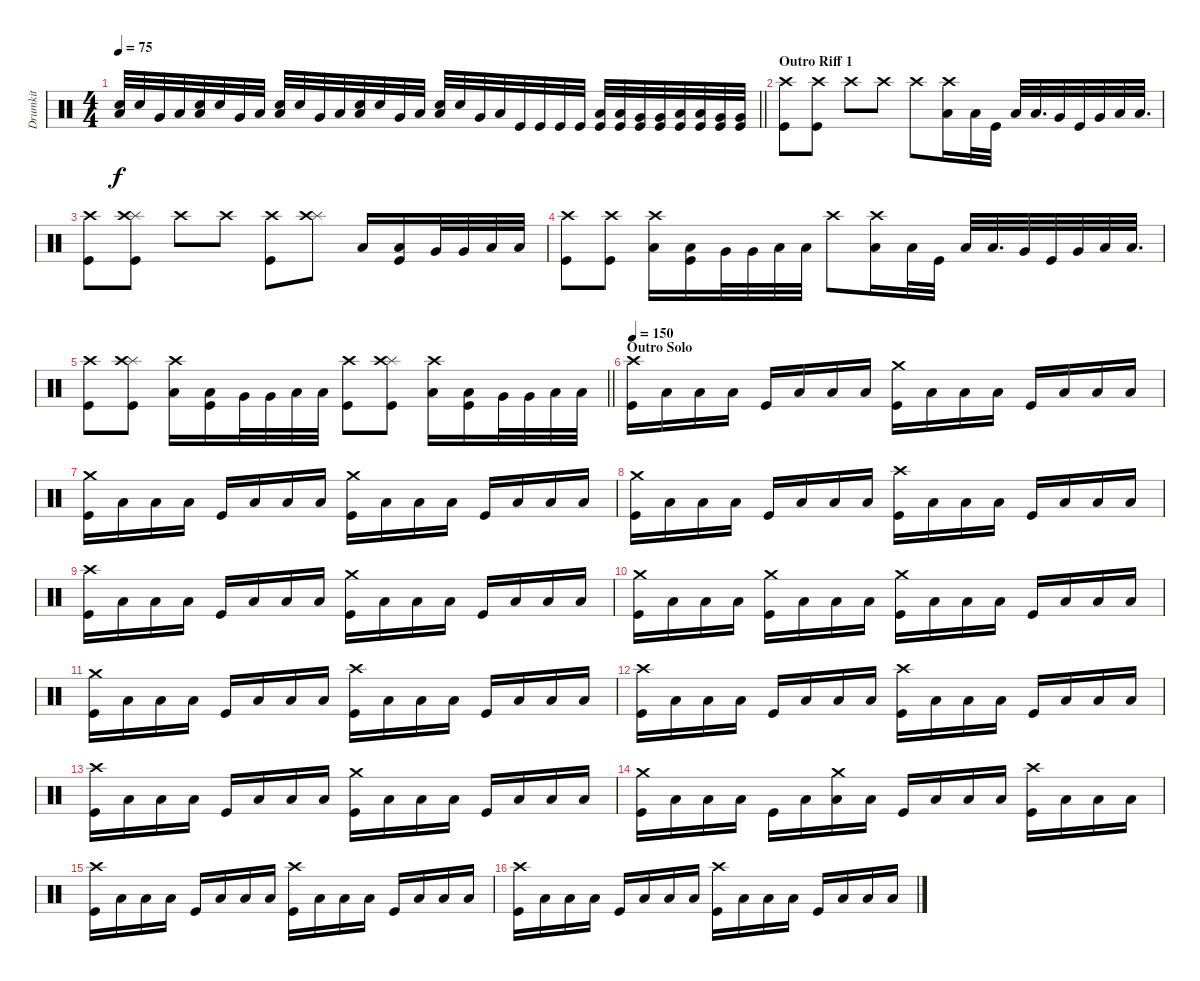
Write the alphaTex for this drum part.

\track ("Drumkit" "Drumkit") {instrument percussion}
\staff {score}
\articulation defaults
\ts (4 4)
\tempo 75
\clef neutral
\barLineRight lightlight
\ks c
("Low Tom (hit)" "Snare (hit) 2").32{dy f} "Snare (hit) 2".32 "Very Low Tom (hit)".32 "Low Floor Tom (hit)".32 ("Low Tom (hit)" "Snare (hit) 2").32 "Snare (hit) 2".32 "Very Low Tom (hit)".32 "Low Floor Tom (hit)".32 ("Low Tom (hit)" "Snare (hit) 2").32 "Snare (hit) 2".32 "Very Low Tom (hit)".32 "Low Floor Tom (hit)".32 ("Low Tom (hit)" "Snare (hit) 2").32 "Snare (hit) 2".32 "Very Low Tom (hit)".32 "Low Floor Tom (hit)".32 ("Low Tom (hit)" "Snare (hit) 2").32 "Snare (hit) 2".32 "Very Low Tom (hit)".32 "Low Floor Tom (hit)".32 "Kick (hit)".32 "Kick (hit)".32 "Kick (hit)".32 "Kick (hit)".32 ("Low Floor Tom (hit)" "Kick (hit)").32 ("Low Floor Tom (hit)" "Kick (hit)").32 ("Very Low Tom (hit)" "Kick (hit)").32 ("Very Low Tom (hit)" "Kick (hit)").32 ("Low Floor Tom (hit)" "Kick (hit)").32 ("Low Floor Tom (hit)" "Kick (hit)").32 ("Very Low Tom (hit)" "Kick (hit)").32 ("Very Low Tom (hit)" "Kick (hit)").32 |
\section ("" "Outro Riff 1")
("Crash high (hit)" "Kick (hit)").8 ("Crash high (hit)" "Kick (hit)").8 "Crash high (hit)".8 "Crash high (hit)".8 "Crash high (hit)".8 ("Crash high (hit)" "Low Tom (hit)").16 "Low Tom (hit)".32 "Kick (hit)".32 "Low Tom (hit)".32 "Low Tom (hit)".32{d} "Very Low Tom (hit)".32 "Kick (hit)".32 "Very Low Tom (hit)".32 "Low Floor Tom (hit)".32 "Low Floor Tom (hit)".32{d} |
("Crash high (hit)" "Kick (hit)").8 ("Splash (hit)" "Crash high (hit)" "Kick (hit)").8 "Crash high (hit)".8 "Crash high (hit)".8 ("Crash high (hit)" "Kick (hit)").8 ("Splash (hit)" "Crash high (hit)").8 "Low Tom (hit)".16 ("Low Tom (hit)" "Kick (hit)").16 "Very Low Tom (hit)".32 "Very Low Tom (hit)".32 "Low Floor Tom (hit)".32 "Low Floor Tom (hit)".32 |
("Crash high (hit)" "Kick (hit)").8 ("Crash high (hit)" "Kick (hit)").8 ("Crash high (hit)" "Low Tom (hit)").16 ("Low Tom (hit)" "Kick (hit)").16 "Very Low Tom (hit)".32 "Very Low Tom (hit)".32 "Low Floor Tom (hit)".32 "Low Floor Tom (hit)".32 "Crash high (hit)".8 ("Crash high (hit)" "Low Tom (hit)").16 "Low Tom (hit)".32 "Kick (hit)".32 "Low Tom (hit)".32 "Low Tom (hit)".32{d} "Very Low Tom (hit)".32 "Kick (hit)".32 "Very Low Tom (hit)".32 "Low Floor Tom (hit)".32 "Low Floor Tom (hit)".32{d} |
\barLineRight lightlight
("Crash high (hit)" "Kick (hit)").8 ("Splash (hit)" "Crash high (hit)" "Kick (hit)").8 ("Crash high (hit)" "Low Tom (hit)").16 ("Low Tom (hit)" "Kick (hit)").16 "Very Low Tom (hit)".32 "Very Low Tom (hit)".32 "Low Floor Tom (hit)".32 "Low Floor Tom (hit)".32 ("Crash high (hit)" "Kick (hit)").8 ("Splash (hit)" "Crash high (hit)" "Kick (hit)").8 ("Crash high (hit)" "Low Tom (hit)").16 ("Low Tom (hit)" "Kick (hit)").16 "Very Low Tom (hit)".32 "Very Low Tom (hit)".32 "Low Floor Tom (hit)".32 "Low Floor Tom (hit)".32 |
\section ("" "Outro Solo")
\tempo 150
("Crash high (hit)" "Kick (hit)").16 "Low Tom (hit)".16 "Low Tom (hit)".16 "Low Tom (hit)".16 "Kick (hit)".16 "Low Tom (hit)".16 "Low Tom (hit)".16 "Low Tom (hit)".16 ("Crash medium (hit)" "Kick (hit)").16 "Low Tom (hit)".16 "Low Tom (hit)".16 "Low Tom (hit)".16 "Kick (hit)".16 "Low Tom (hit)".16 "Low Tom (hit)".16 "Low Tom (hit)".16 |
("Crash medium (hit)" "Kick (hit)").16 "Low Tom (hit)".16 "Low Tom (hit)".16 "Low Tom (hit)".16 "Kick (hit)".16 "Low Tom (hit)".16 "Low Tom (hit)".16 "Low Tom (hit)".16 ("Crash medium (hit)" "Kick (hit)").16 "Low Tom (hit)".16 "Low Tom (hit)".16 "Low Tom (hit)".16 "Kick (hit)".16 "Low Tom (hit)".16 "Low Tom (hit)".16 "Low Tom (hit)".16 |
("Crash medium (hit)" "Kick (hit)").16 "Low Tom (hit)".16 "Low Tom (hit)".16 "Low Tom (hit)".16 "Kick (hit)".16 "Low Tom (hit)".16 "Low Tom (hit)".16 "Low Tom (hit)".16 ("Crash high (hit)" "Kick (hit)").16 "Low Tom (hit)".16 "Low Tom (hit)".16 "Low Tom (hit)".16 "Kick (hit)".16 "Low Tom (hit)".16 "Low Tom (hit)".16 "Low Tom (hit)".16 |
("Crash high (hit)" "Kick (hit)").16 "Low Tom (hit)".16 "Low Tom (hit)".16 "Low Tom (hit)".16 "Kick (hit)".16 "Low Tom (hit)".16 "Low Tom (hit)".16 "Low Tom (hit)".16 ("Crash medium (hit)" "Kick (hit)").16 "Low Tom (hit)".16 "Low Tom (hit)".16 "Low Tom (hit)".16 "Kick (hit)".16 "Low Tom (hit)".16 "Low Tom (hit)".16 "Low Tom (hit)".16 |
("Crash medium (hit)" "Kick (hit)").16 "Low Tom (hit)".16 "Low Tom (hit)".16 "Low Tom (hit)".16 ("Crash medium (hit)" "Kick (hit)").16 "Low Tom (hit)".16 "Low Tom (hit)".16 "Low Tom (hit)".16 ("Crash medium (hit)" "Kick (hit)").16 "Low Tom (hit)".16 "Low Tom (hit)".16 "Low Tom (hit)".16 "Kick (hit)".16 "Low Tom (hit)".16 "Low Tom (hit)".16 "Low Tom (hit)".16 |
("Crash medium (hit)" "Kick (hit)").16 "Low Tom (hit)".16 "Low Tom (hit)".16 "Low Tom (hit)".16 "Kick (hit)".16 "Low Tom (hit)".16 "Low Tom (hit)".16 "Low Tom (hit)".16 ("Crash high (hit)" "Kick (hit)").16 "Low Tom (hit)".16 "Low Tom (hit)".16 "Low Tom (hit)".16 "Kick (hit)".16 "Low Tom (hit)".16 "Low Tom (hit)".16 "Low Tom (hit)".16 |
("Crash high (hit)" "Kick (hit)").16 "Low Tom (hit)".16 "Low Tom (hit)".16 "Low Tom (hit)".16 "Kick (hit)".16 "Low Tom (hit)".16 "Low Tom (hit)".16 "Low Tom (hit)".16 ("Crash high (hit)" "Kick (hit)").16 "Low Tom (hit)".16 "Low Tom (hit)".16 "Low Tom (hit)".16 "Kick (hit)".16 "Low Tom (hit)".16 "Low Tom (hit)".16 "Low Tom (hit)".16 |
("Crash high (hit)" "Kick (hit)").16 "Low Tom (hit)".16 "Low Tom (hit)".16 "Low Tom (hit)".16 "Kick (hit)".16 "Low Tom (hit)".16 "Low Tom (hit)".16 "Low Tom (hit)".16 ("Crash medium (hit)" "Kick (hit)").16 "Low Tom (hit)".16 "Low Tom (hit)".16 "Low Tom (hit)".16 "Kick (hit)".16 "Low Tom (hit)".16 "Low Tom (hit)".16 "Low Tom (hit)".16 |
("Crash medium (hit)" "Kick (hit)").16 "Low Tom (hit)".16 "Low Tom (hit)".16 "Low Tom (hit)".16 "Kick (hit)".16 "Low Tom (hit)".16 ("Crash medium (hit)" "Low Tom (hit)").16 "Low Tom (hit)".16 "Kick (hit)".16 "Low Tom (hit)".16 "Low Tom (hit)".16 "Low Tom (hit)".16 ("Crash high (hit)" "Kick (hit)").16 "Low Tom (hit)".16 "Low Tom (hit)".16 "Low Tom (hit)".16 |
("Crash high (hit)" "Kick (hit)").16 "Low Tom (hit)".16 "Low Tom (hit)".16 "Low Tom (hit)".16 "Kick (hit)".16 "Low Tom (hit)".16 "Low Tom (hit)".16 "Low Tom (hit)".16 ("Crash high (hit)" "Kick (hit)").16 "Low Tom (hit)".16 "Low Tom (hit)".16 "Low Tom (hit)".16 "Kick (hit)".16 "Low Tom (hit)".16 "Low Tom (hit)".16 "Low Tom (hit)".16 |
("Crash high (hit)" "Kick (hit)").16 "Low Tom (hit)".16 "Low Tom (hit)".16 "Low Tom (hit)".16 "Kick (hit)".16 "Low Tom (hit)".16 "Low Tom (hit)".16 "Low Tom (hit)".16 ("Crash high (hit)" "Kick (hit)").16 "Low Tom (hit)".16 "Low Tom (hit)".16 "Low Tom (hit)".16 "Kick (hit)".16 "Low Tom (hit)".16 "Low Tom (hit)".16 "Low Tom (hit)".16
